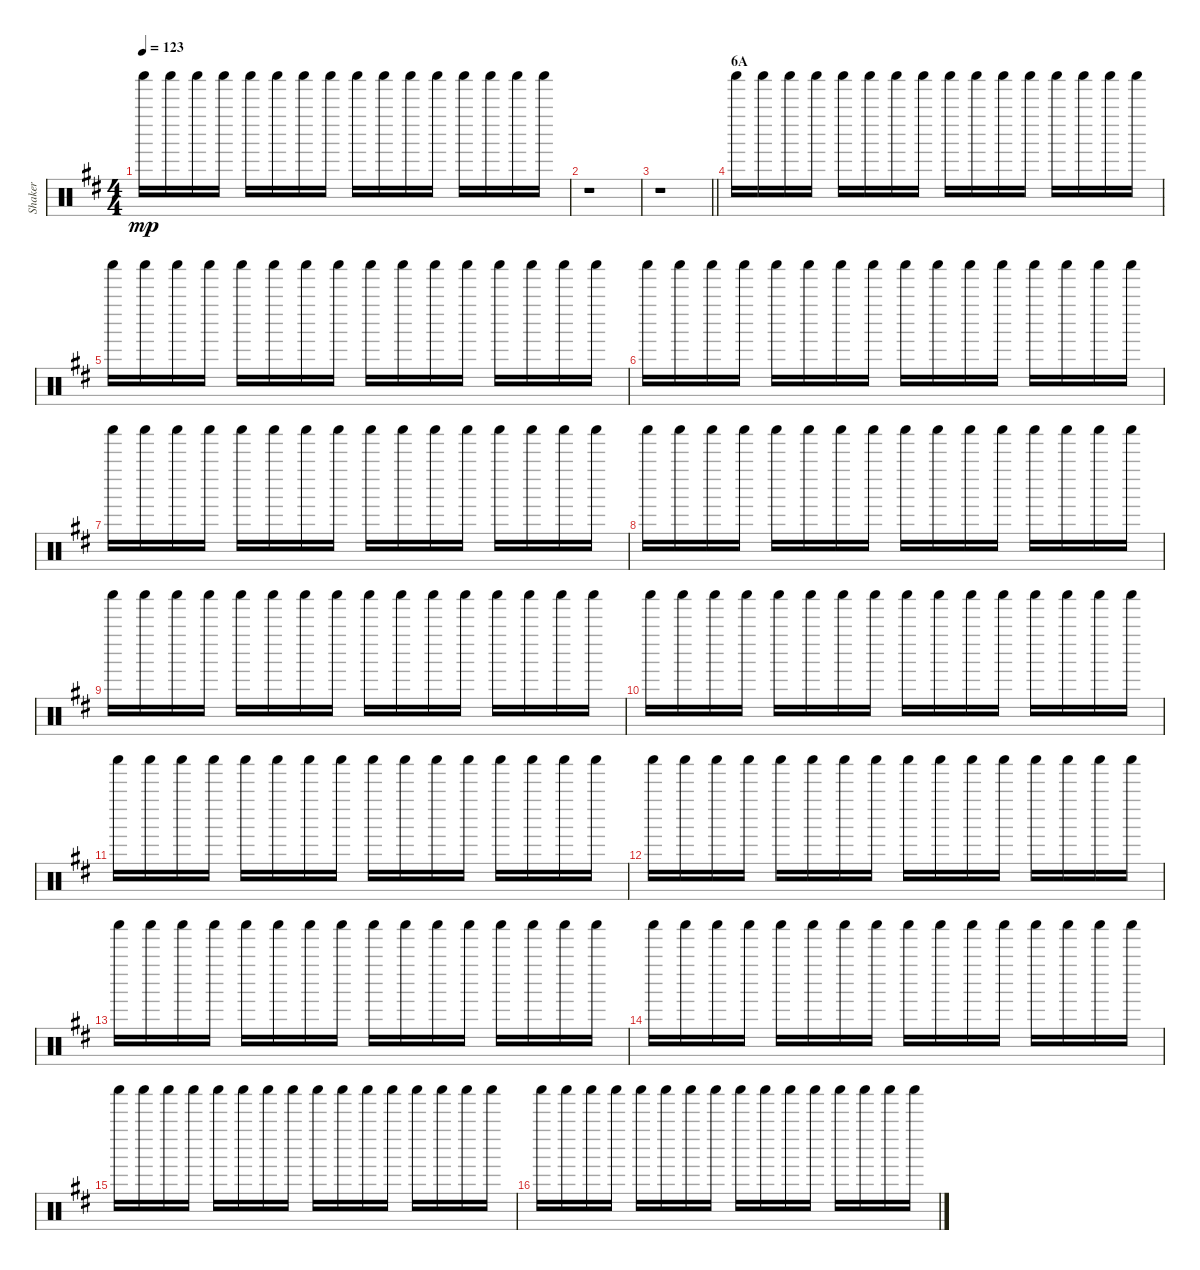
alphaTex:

\track ("Shaker" "Shaker") {instrument percussion}
\staff {score}
\articulation defaults
\ts (4 4)
\tempo 123
\clef neutral
\ks d "Shaker (hit)".16{dy mp} "Shaker (hit)".16 "Shaker (hit)".16 "Shaker (hit)".16 "Shaker (hit)".16 "Shaker (hit)".16 "Shaker (hit)".16 "Shaker (hit)".16 "Shaker (hit)".16 "Shaker (hit)".16 "Shaker (hit)".16 "Shaker (hit)".16 "Shaker (hit)".16 "Shaker (hit)".16 "Shaker (hit)".16 "Shaker (hit)".16
|
r.1 |
\barLineRight lightlight
r.1 |
\section ("" "6A")
"Shaker (hit)".16 "Shaker (hit)".16 "Shaker (hit)".16 "Shaker (hit)".16 "Shaker (hit)".16 "Shaker (hit)".16 "Shaker (hit)".16 "Shaker (hit)".16 "Shaker (hit)".16 "Shaker (hit)".16 "Shaker (hit)".16 "Shaker (hit)".16 "Shaker (hit)".16 "Shaker (hit)".16 "Shaker (hit)".16 "Shaker (hit)".16 |
"Shaker (hit)".16 "Shaker (hit)".16 "Shaker (hit)".16 "Shaker (hit)".16 "Shaker (hit)".16 "Shaker (hit)".16 "Shaker (hit)".16 "Shaker (hit)".16 "Shaker (hit)".16 "Shaker (hit)".16 "Shaker (hit)".16 "Shaker (hit)".16 "Shaker (hit)".16 "Shaker (hit)".16 "Shaker (hit)".16 "Shaker (hit)".16 |
"Shaker (hit)".16 "Shaker (hit)".16 "Shaker (hit)".16 "Shaker (hit)".16 "Shaker (hit)".16 "Shaker (hit)".16 "Shaker (hit)".16 "Shaker (hit)".16 "Shaker (hit)".16 "Shaker (hit)".16 "Shaker (hit)".16 "Shaker (hit)".16 "Shaker (hit)".16 "Shaker (hit)".16 "Shaker (hit)".16 "Shaker (hit)".16 |
"Shaker (hit)".16 "Shaker (hit)".16 "Shaker (hit)".16 "Shaker (hit)".16 "Shaker (hit)".16 "Shaker (hit)".16 "Shaker (hit)".16 "Shaker (hit)".16 "Shaker (hit)".16 "Shaker (hit)".16 "Shaker (hit)".16 "Shaker (hit)".16 "Shaker (hit)".16 "Shaker (hit)".16 "Shaker (hit)".16 "Shaker (hit)".16 |
"Shaker (hit)".16 "Shaker (hit)".16 "Shaker (hit)".16 "Shaker (hit)".16 "Shaker (hit)".16 "Shaker (hit)".16 "Shaker (hit)".16 "Shaker (hit)".16 "Shaker (hit)".16 "Shaker (hit)".16 "Shaker (hit)".16 "Shaker (hit)".16 "Shaker (hit)".16 "Shaker (hit)".16 "Shaker (hit)".16 "Shaker (hit)".16 |
"Shaker (hit)".16 "Shaker (hit)".16 "Shaker (hit)".16 "Shaker (hit)".16 "Shaker (hit)".16 "Shaker (hit)".16 "Shaker (hit)".16 "Shaker (hit)".16 "Shaker (hit)".16 "Shaker (hit)".16 "Shaker (hit)".16 "Shaker (hit)".16 "Shaker (hit)".16 "Shaker (hit)".16 "Shaker (hit)".16 "Shaker (hit)".16 |
"Shaker (hit)".16 "Shaker (hit)".16 "Shaker (hit)".16 "Shaker (hit)".16 "Shaker (hit)".16 "Shaker (hit)".16 "Shaker (hit)".16 "Shaker (hit)".16 "Shaker (hit)".16 "Shaker (hit)".16 "Shaker (hit)".16 "Shaker (hit)".16 "Shaker (hit)".16 "Shaker (hit)".16 "Shaker (hit)".16 "Shaker (hit)".16 |
"Shaker (hit)".16 "Shaker (hit)".16 "Shaker (hit)".16 "Shaker (hit)".16 "Shaker (hit)".16 "Shaker (hit)".16 "Shaker (hit)".16 "Shaker (hit)".16 "Shaker (hit)".16 "Shaker (hit)".16 "Shaker (hit)".16 "Shaker (hit)".16 "Shaker (hit)".16 "Shaker (hit)".16 "Shaker (hit)".16 "Shaker (hit)".16 |
"Shaker (hit)".16 "Shaker (hit)".16 "Shaker (hit)".16 "Shaker (hit)".16 "Shaker (hit)".16 "Shaker (hit)".16 "Shaker (hit)".16 "Shaker (hit)".16 "Shaker (hit)".16 "Shaker (hit)".16 "Shaker (hit)".16 "Shaker (hit)".16 "Shaker (hit)".16 "Shaker (hit)".16 "Shaker (hit)".16 "Shaker (hit)".16 |
"Shaker (hit)".16 "Shaker (hit)".16 "Shaker (hit)".16 "Shaker (hit)".16 "Shaker (hit)".16 "Shaker (hit)".16 "Shaker (hit)".16 "Shaker (hit)".16 "Shaker (hit)".16 "Shaker (hit)".16 "Shaker (hit)".16 "Shaker (hit)".16 "Shaker (hit)".16 "Shaker (hit)".16 "Shaker (hit)".16 "Shaker (hit)".16 |
"Shaker (hit)".16 "Shaker (hit)".16 "Shaker (hit)".16 "Shaker (hit)".16 "Shaker (hit)".16 "Shaker (hit)".16 "Shaker (hit)".16 "Shaker (hit)".16 "Shaker (hit)".16 "Shaker (hit)".16 "Shaker (hit)".16 "Shaker (hit)".16 "Shaker (hit)".16 "Shaker (hit)".16 "Shaker (hit)".16 "Shaker (hit)".16 |
"Shaker (hit)".16 "Shaker (hit)".16 "Shaker (hit)".16 "Shaker (hit)".16 "Shaker (hit)".16 "Shaker (hit)".16 "Shaker (hit)".16 "Shaker (hit)".16 "Shaker (hit)".16 "Shaker (hit)".16 "Shaker (hit)".16 "Shaker (hit)".16 "Shaker (hit)".16 "Shaker (hit)".16 "Shaker (hit)".16 "Shaker (hit)".16 |
"Shaker (hit)".16 "Shaker (hit)".16 "Shaker (hit)".16 "Shaker (hit)".16 "Shaker (hit)".16 "Shaker (hit)".16 "Shaker (hit)".16 "Shaker (hit)".16 "Shaker (hit)".16 "Shaker (hit)".16 "Shaker (hit)".16 "Shaker (hit)".16 "Shaker (hit)".16 "Shaker (hit)".16 "Shaker (hit)".16 "Shaker (hit)".16
